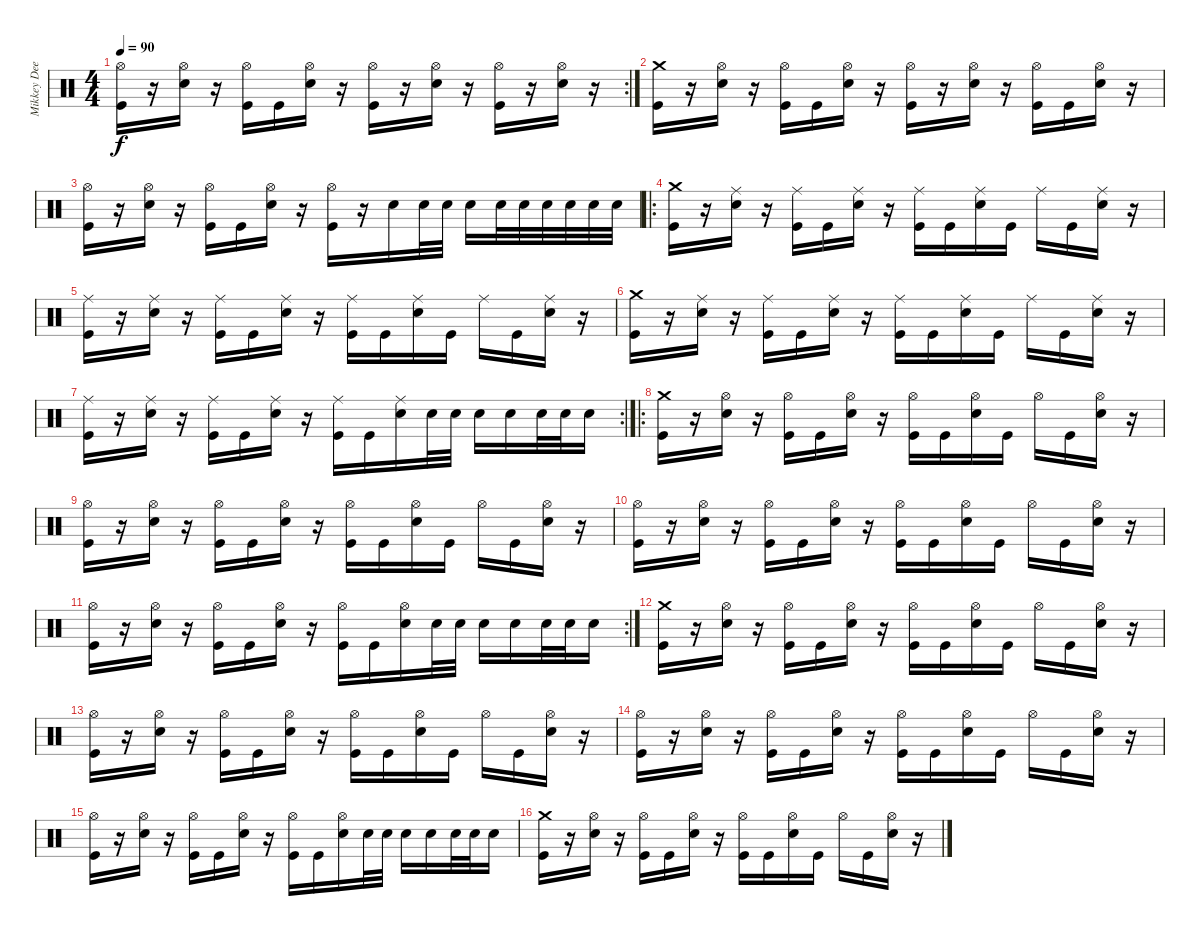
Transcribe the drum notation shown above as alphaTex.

\track ("Mikkey Dee" "Mikkey Dee") {instrument percussion}
\staff {score}
\articulation defaults
\rc 2
\ts (4 4)
\tempo 90
\clef neutral
\ks c
("Hi-Hat (open)" "Kick (hit)").16{dy f} r.16 ("Hi-Hat (open)" "Snare (hit) 2").16 r.16 ("Hi-Hat (open)" "Kick (hit)").16 "Kick (hit)".16 ("Hi-Hat (open)" "Snare (hit) 2").16 r.16 ("Hi-Hat (open)" "Kick (hit)").16 r.16 ("Hi-Hat (open)" "Snare (hit) 2").16 r.16 ("Hi-Hat (open)" "Kick (hit)").16 r.16 ("Hi-Hat (open)" "Snare (hit) 2").16 r.16 |
("Crash medium (hit)" "Kick (hit)").16 r.16 ("Hi-Hat (open)" "Snare (hit) 2").16 r.16 ("Hi-Hat (open)" "Kick (hit)").16 "Kick (hit)".16 ("Hi-Hat (open)" "Snare (hit) 2").16 r.16 ("Hi-Hat (open)" "Kick (hit)").16 r.16 ("Hi-Hat (open)" "Snare (hit) 2").16 r.16 ("Hi-Hat (open)" "Kick (hit)").16 "Kick (hit)".16 ("Hi-Hat (open)" "Snare (hit) 2").16 r.16 |
("Hi-Hat (open)" "Kick (hit)").16 r.16 ("Hi-Hat (open)" "Snare (hit) 2").16 r.16 ("Hi-Hat (open)" "Kick (hit)").16 "Kick (hit)".16 ("Hi-Hat (open)" "Snare (hit) 2").16 r.16 ("Hi-Hat (open)" "Kick (hit)").16 r.16 "Snare (hit) 2".16 "Snare (hit) 2".32 "Snare (hit) 2".32 "Snare (hit) 2".16 "Snare (hit) 2".32 "Snare (hit) 2".32 "Snare (hit) 2".32 "Snare (hit) 2".32 "Snare (hit) 2".32 "Snare (hit) 2".32 |
\ro
("Crash medium (hit)" "Kick (hit)").16 r.16 ("Ride (middle)" "Snare (hit) 2").16 r.16 ("Ride (middle)" "Kick (hit)").16 "Kick (hit)".16 ("Ride (middle)" "Snare (hit) 2").16 r.16 ("Ride (middle)" "Kick (hit)").16 "Kick (hit)".16 ("Ride (middle)" "Snare (hit) 2").16 "Kick (hit)".16 "Ride (middle)".16 "Kick (hit)".16 ("Ride (middle)" "Snare (hit) 2").16 r.16 |
("Ride (middle)" "Kick (hit)").16 r.16 ("Ride (middle)" "Snare (hit) 2").16 r.16 ("Ride (middle)" "Kick (hit)").16 "Kick (hit)".16 ("Ride (middle)" "Snare (hit) 2").16 r.16 ("Ride (middle)" "Kick (hit)").16 "Kick (hit)".16 ("Ride (middle)" "Snare (hit) 2").16 "Kick (hit)".16 "Ride (middle)".16 "Kick (hit)".16 ("Ride (middle)" "Snare (hit) 2").16 r.16 |
("Crash medium (hit)" "Kick (hit)").16 r.16 ("Ride (middle)" "Snare (hit) 2").16 r.16 ("Ride (middle)" "Kick (hit)").16 "Kick (hit)".16 ("Ride (middle)" "Snare (hit) 2").16 r.16 ("Ride (middle)" "Kick (hit)").16 "Kick (hit)".16 ("Ride (middle)" "Snare (hit) 2").16 "Kick (hit)".16 "Ride (middle)".16 "Kick (hit)".16 ("Ride (middle)" "Snare (hit) 2").16 r.16 |
\rc 2
("Ride (middle)" "Kick (hit)").16 r.16 ("Ride (middle)" "Snare (hit) 2").16 r.16 ("Ride (middle)" "Kick (hit)").16 "Kick (hit)".16 ("Ride (middle)" "Snare (hit) 2").16 r.16 ("Ride (middle)" "Kick (hit)").16 "Kick (hit)".16 ("Ride (middle)" "Snare (hit) 2").16 "Snare (hit) 2".32 "Snare (hit) 2".32 "Snare (hit) 2".16 "Snare (hit) 2".16 "Snare (hit) 2".32 "Snare (hit) 2".32 "Snare (hit) 2".16 |
\ro
("Crash medium (hit)" "Kick (hit)").16 r.16 ("Hi-Hat (open)" "Snare (hit) 2").16 r.16 ("Hi-Hat (open)" "Kick (hit)").16 "Kick (hit)".16 ("Hi-Hat (open)" "Snare (hit) 2").16 r.16 ("Hi-Hat (open)" "Kick (hit)").16 "Kick (hit)".16 ("Hi-Hat (open)" "Snare (hit) 2").16 "Kick (hit)".16 "Hi-Hat (open)".16 "Kick (hit)".16 ("Hi-Hat (open)" "Snare (hit) 2").16 r.16 |
("Hi-Hat (open)" "Kick (hit)").16 r.16 ("Hi-Hat (open)" "Snare (hit) 2").16 r.16 ("Hi-Hat (open)" "Kick (hit)").16 "Kick (hit)".16 ("Hi-Hat (open)" "Snare (hit) 2").16 r.16 ("Hi-Hat (open)" "Kick (hit)").16 "Kick (hit)".16 ("Hi-Hat (open)" "Snare (hit) 2").16 "Kick (hit)".16 "Hi-Hat (open)".16 "Kick (hit)".16 ("Hi-Hat (open)" "Snare (hit) 2").16 r.16 |
("Hi-Hat (open)" "Kick (hit)").16 r.16 ("Hi-Hat (open)" "Snare (hit) 2").16 r.16 ("Hi-Hat (open)" "Kick (hit)").16 "Kick (hit)".16 ("Hi-Hat (open)" "Snare (hit) 2").16 r.16 ("Hi-Hat (open)" "Kick (hit)").16 "Kick (hit)".16 ("Hi-Hat (open)" "Snare (hit) 2").16 "Kick (hit)".16 "Hi-Hat (open)".16 "Kick (hit)".16 ("Hi-Hat (open)" "Snare (hit) 2").16 r.16 |
\rc 2
("Hi-Hat (open)" "Kick (hit)").16 r.16 ("Hi-Hat (open)" "Snare (hit) 2").16 r.16 ("Hi-Hat (open)" "Kick (hit)").16 "Kick (hit)".16 ("Hi-Hat (open)" "Snare (hit) 2").16 r.16 ("Hi-Hat (open)" "Kick (hit)").16 "Kick (hit)".16 ("Hi-Hat (open)" "Snare (hit) 2").16 "Snare (hit) 2".32 "Snare (hit) 2".32 "Snare (hit) 2".16 "Snare (hit) 2".16 "Snare (hit) 2".32 "Snare (hit) 2".32 "Snare (hit) 2".16 |
("Crash medium (hit)" "Kick (hit)").16 r.16 ("Hi-Hat (open)" "Snare (hit) 2").16 r.16 ("Hi-Hat (open)" "Kick (hit)").16 "Kick (hit)".16 ("Hi-Hat (open)" "Snare (hit) 2").16 r.16 ("Hi-Hat (open)" "Kick (hit)").16 "Kick (hit)".16 ("Hi-Hat (open)" "Snare (hit) 2").16 "Kick (hit)".16 "Hi-Hat (open)".16 "Kick (hit)".16 ("Hi-Hat (open)" "Snare (hit) 2").16 r.16 |
("Hi-Hat (open)" "Kick (hit)").16 r.16 ("Hi-Hat (open)" "Snare (hit) 2").16 r.16 ("Hi-Hat (open)" "Kick (hit)").16 "Kick (hit)".16 ("Hi-Hat (open)" "Snare (hit) 2").16 r.16 ("Hi-Hat (open)" "Kick (hit)").16 "Kick (hit)".16 ("Hi-Hat (open)" "Snare (hit) 2").16 "Kick (hit)".16 "Hi-Hat (open)".16 "Kick (hit)".16 ("Hi-Hat (open)" "Snare (hit) 2").16 r.16 |
("Hi-Hat (open)" "Kick (hit)").16 r.16 ("Hi-Hat (open)" "Snare (hit) 2").16 r.16 ("Hi-Hat (open)" "Kick (hit)").16 "Kick (hit)".16 ("Hi-Hat (open)" "Snare (hit) 2").16 r.16 ("Hi-Hat (open)" "Kick (hit)").16 "Kick (hit)".16 ("Hi-Hat (open)" "Snare (hit) 2").16 "Kick (hit)".16 "Hi-Hat (open)".16 "Kick (hit)".16 ("Hi-Hat (open)" "Snare (hit) 2").16 r.16 |
("Hi-Hat (open)" "Kick (hit)").16 r.16 ("Hi-Hat (open)" "Snare (hit) 2").16 r.16 ("Hi-Hat (open)" "Kick (hit)").16 "Kick (hit)".16 ("Hi-Hat (open)" "Snare (hit) 2").16 r.16 ("Hi-Hat (open)" "Kick (hit)").16 "Kick (hit)".16 ("Hi-Hat (open)" "Snare (hit) 2").16 "Snare (hit) 2".32 "Snare (hit) 2".32 "Snare (hit) 2".16 "Snare (hit) 2".16 "Snare (hit) 2".32 "Snare (hit) 2".32 "Snare (hit) 2".16 |
("Crash medium (hit)" "Kick (hit)").16 r.16 ("Hi-Hat (open)" "Snare (hit) 2").16 r.16 ("Hi-Hat (open)" "Kick (hit)").16 "Kick (hit)".16 ("Hi-Hat (open)" "Snare (hit) 2").16 r.16 ("Hi-Hat (open)" "Kick (hit)").16 "Kick (hit)".16 ("Hi-Hat (open)" "Snare (hit) 2").16 "Kick (hit)".16 "Hi-Hat (open)".16 "Kick (hit)".16 ("Hi-Hat (open)" "Snare (hit) 2").16 r.16
